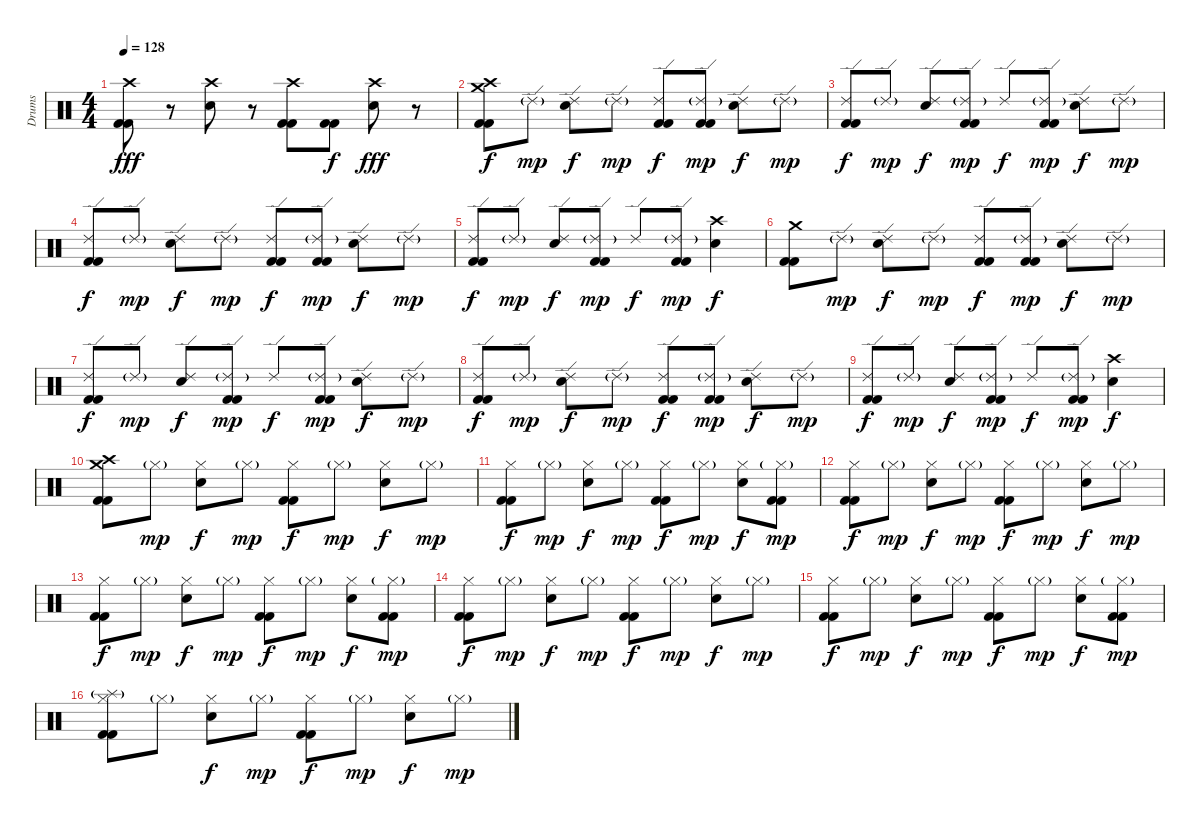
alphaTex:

\track ("Drums" "Drums") {instrument percussion}
\staff {score}
\articulation defaults
\ts (4 4)
\tempo 128
\clef neutral
\ks c
("Crash high (hit)" "Kick (hit) 2" "Kick (hit) 2").8{dy fff} r.8 ("Crash high (hit)" "Electric Snare (hit)").8 r.8 ("Crash high (hit)" "Kick (hit) 2" "Kick (hit) 2").8 ("Kick (hit) 2" "Kick (hit) 2").8{dy f} ("Crash high (hit)" "Electric Snare (hit)").8{dy fff} r.8 |
("Crash medium (hit)" "Crash high (hit)" "Kick (hit) 2" "Kick (hit) 2").8{dy f} "Ride (edge) 2"{g}.8{dy mp} ("Ride (edge) 2" "Electric Snare (hit)").8{dy f} "Ride (edge) 2"{g}.8{dy mp} ("Ride (edge) 2" "Kick (hit) 2" "Kick (hit) 2").8{dy f} ("Ride (edge) 2"{g} "Kick (hit) 2" "Kick (hit) 2").8{dy mp} ("Ride (edge) 2" "Electric Snare (hit)").8{dy f} "Ride (edge) 2"{g}.8{dy mp} |
("Ride (edge) 2" "Kick (hit) 2" "Kick (hit) 2").8{dy f} "Ride (edge) 2"{g}.8{dy mp} ("Ride (edge) 2" "Electric Snare (hit)").8{dy f} ("Ride (edge) 2"{g} "Kick (hit) 2" "Kick (hit) 2").8{dy mp} "Ride (edge) 2".8{dy f} ("Ride (edge) 2"{g} "Kick (hit) 2" "Kick (hit) 2").8{dy mp} ("Ride (edge) 2" "Electric Snare (hit)").8{dy f} "Ride (edge) 2"{g}.8{dy mp} |
("Ride (edge) 2" "Kick (hit) 2" "Kick (hit) 2").8{dy f} "Ride (edge) 2"{g}.8{dy mp} ("Ride (edge) 2" "Electric Snare (hit)").8{dy f} "Ride (edge) 2"{g}.8{dy mp} ("Ride (edge) 2" "Kick (hit) 2" "Kick (hit) 2").8{dy f} ("Ride (edge) 2"{g} "Kick (hit) 2" "Kick (hit) 2").8{dy mp} ("Ride (edge) 2" "Electric Snare (hit)").8{dy f} "Ride (edge) 2"{g}.8{dy mp} |
("Ride (edge) 2" "Kick (hit) 2" "Kick (hit) 2").8{dy f} "Ride (edge) 2"{g}.8{dy mp} ("Ride (edge) 2" "Electric Snare (hit)").8{dy f} ("Ride (edge) 2"{g} "Kick (hit) 2" "Kick (hit) 2").8{dy mp} "Ride (edge) 2".8{dy f} ("Ride (edge) 2"{g} "Kick (hit) 2" "Kick (hit) 2").8{dy mp} ("Crash high (hit)" "Electric Snare (hit)").4{dy f} |
("Crash medium (hit)" "Kick (hit) 2" "Kick (hit) 2").8 "Ride (edge) 2"{g}.8{dy mp} ("Ride (edge) 2" "Electric Snare (hit)").8{dy f} "Ride (edge) 2"{g}.8{dy mp} ("Ride (edge) 2" "Kick (hit) 2" "Kick (hit) 2").8{dy f} ("Ride (edge) 2"{g} "Kick (hit) 2" "Kick (hit) 2").8{dy mp} ("Ride (edge) 2" "Electric Snare (hit)").8{dy f} "Ride (edge) 2"{g}.8{dy mp} |
("Ride (edge) 2" "Kick (hit) 2" "Kick (hit) 2").8{dy f} "Ride (edge) 2"{g}.8{dy mp} ("Ride (edge) 2" "Electric Snare (hit)").8{dy f} ("Ride (edge) 2"{g} "Kick (hit) 2" "Kick (hit) 2").8{dy mp} "Ride (edge) 2".8{dy f} ("Ride (edge) 2"{g} "Kick (hit) 2" "Kick (hit) 2").8{dy mp} ("Ride (edge) 2" "Electric Snare (hit)").8{dy f} "Ride (edge) 2"{g}.8{dy mp} |
("Ride (edge) 2" "Kick (hit) 2" "Kick (hit) 2").8{dy f} "Ride (edge) 2"{g}.8{dy mp} ("Ride (edge) 2" "Electric Snare (hit)").8{dy f} "Ride (edge) 2"{g}.8{dy mp} ("Ride (edge) 2" "Kick (hit) 2" "Kick (hit) 2").8{dy f} ("Ride (edge) 2"{g} "Kick (hit) 2" "Kick (hit) 2").8{dy mp} ("Ride (edge) 2" "Electric Snare (hit)").8{dy f} "Ride (edge) 2"{g}.8{dy mp} |
("Ride (edge) 2" "Kick (hit) 2" "Kick (hit) 2").8{dy f} "Ride (edge) 2"{g}.8{dy mp} ("Ride (edge) 2" "Electric Snare (hit)").8{dy f} ("Ride (edge) 2"{g} "Kick (hit) 2" "Kick (hit) 2").8{dy mp} "Ride (edge) 2".8{dy f} ("Ride (edge) 2"{g} "Kick (hit) 2" "Kick (hit) 2").8{dy mp} ("Crash high (hit)" "Electric Snare (hit)").4{dy f} |
("Crash medium (hit)" "Crash high (hit)" "Kick (hit) 2" "Kick (hit) 2").8{volume 16} "Hi-Hat (closed)"{g}.8{dy mp} ("Hi-Hat (closed)" "Electric Snare (hit)").8{dy f} "Hi-Hat (closed)"{g}.8{dy mp} ("Hi-Hat (closed)" "Kick (hit) 2" "Kick (hit) 2").8{dy f} "Hi-Hat (closed)"{g}.8{dy mp} ("Hi-Hat (closed)" "Electric Snare (hit)").8{dy f} "Hi-Hat (closed)"{g}.8{dy mp} |
("Hi-Hat (closed)" "Kick (hit) 2" "Kick (hit) 2").8{dy f} "Hi-Hat (closed)"{g}.8{dy mp} ("Hi-Hat (closed)" "Electric Snare (hit)").8{dy f} "Hi-Hat (closed)"{g}.8{dy mp} ("Hi-Hat (closed)" "Kick (hit) 2" "Kick (hit) 2").8{dy f} "Hi-Hat (closed)"{g}.8{dy mp} ("Hi-Hat (closed)" "Electric Snare (hit)").8{dy f} ("Hi-Hat (closed)"{g} "Kick (hit) 2" "Kick (hit) 2").8{dy mp} |
("Hi-Hat (closed)" "Kick (hit) 2" "Kick (hit) 2").8{dy f} "Hi-Hat (closed)"{g}.8{dy mp} ("Hi-Hat (closed)" "Electric Snare (hit)").8{dy f} "Hi-Hat (closed)"{g}.8{dy mp} ("Hi-Hat (closed)" "Kick (hit) 2" "Kick (hit) 2").8{dy f} "Hi-Hat (closed)"{g}.8{dy mp} ("Hi-Hat (closed)" "Electric Snare (hit)").8{dy f} "Hi-Hat (closed)"{g}.8{dy mp} |
("Hi-Hat (closed)" "Kick (hit) 2" "Kick (hit) 2").8{dy f} "Hi-Hat (closed)"{g}.8{dy mp} ("Hi-Hat (closed)" "Electric Snare (hit)").8{dy f} "Hi-Hat (closed)"{g}.8{dy mp} ("Hi-Hat (closed)" "Kick (hit) 2" "Kick (hit) 2").8{dy f} "Hi-Hat (closed)"{g}.8{dy mp} ("Hi-Hat (closed)" "Electric Snare (hit)").8{dy f} ("Hi-Hat (closed)"{g} "Kick (hit) 2" "Kick (hit) 2").8{dy mp} |
("Hi-Hat (closed)" "Kick (hit) 2" "Kick (hit) 2").8{dy f} "Hi-Hat (closed)"{g}.8{dy mp} ("Hi-Hat (closed)" "Electric Snare (hit)").8{dy f} "Hi-Hat (closed)"{g}.8{dy mp} ("Hi-Hat (closed)" "Kick (hit) 2" "Kick (hit) 2").8{dy f} "Hi-Hat (closed)"{g}.8{dy mp} ("Hi-Hat (closed)" "Electric Snare (hit)").8{dy f} "Hi-Hat (closed)"{g}.8{dy mp} |
("Hi-Hat (closed)" "Kick (hit) 2" "Kick (hit) 2").8{dy f} "Hi-Hat (closed)"{g}.8{dy mp} ("Hi-Hat (closed)" "Electric Snare (hit)").8{dy f} "Hi-Hat (closed)"{g}.8{dy mp} ("Hi-Hat (closed)" "Kick (hit) 2" "Kick (hit) 2").8{dy f} "Hi-Hat (closed)"{g}.8{dy mp} ("Hi-Hat (closed)" "Electric Snare (hit)").8{dy f} ("Hi-Hat (closed)"{g} "Kick (hit) 2" "Kick (hit) 2").8{dy mp} |
("Hi-Hat (closed)" "Splash (hit)"{g} "Kick (hit) 2" "Kick (hit) 2").8 "Hi-Hat (closed)"{g}.8 ("Hi-Hat (closed)" "Electric Snare (hit)").8{dy f} "Hi-Hat (closed)"{g}.8{dy mp} ("Hi-Hat (closed)" "Kick (hit) 2" "Kick (hit) 2").8{dy f} "Hi-Hat (closed)"{g}.8{dy mp} ("Hi-Hat (closed)" "Electric Snare (hit)").8{dy f} "Hi-Hat (closed)"{g}.8{dy mp}
